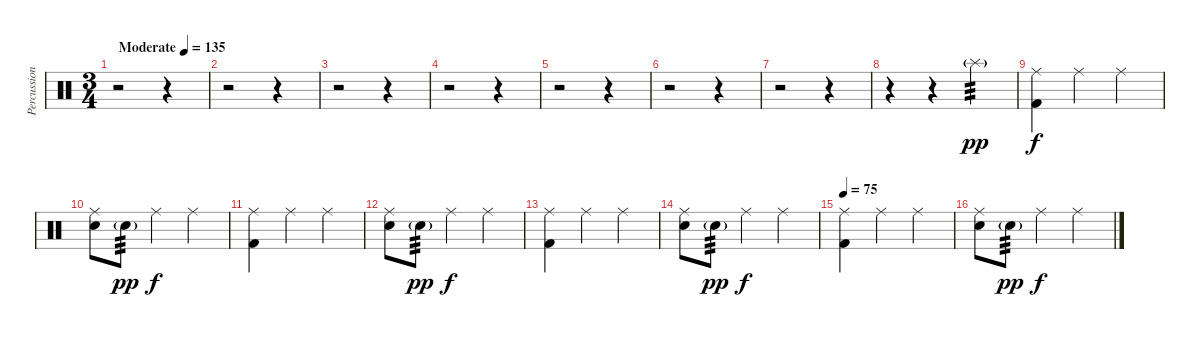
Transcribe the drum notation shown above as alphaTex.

\track ("Percussion" "Percussion") {instrument percussion}
\staff {score}
\articulation defaults
\ts (3 4)
\tempo (135 "Moderate")
\clef neutral
\ks c
r.2{dy pp} r.4 |
r.2 r.4 |
r.2 r.4 |
r.2 r.4 |
r.2 r.4 |
r.2 r.4 |
r.2 r.4 |
r.4 r.4 "Splash (hit)"{g}.4{tp 3} |
("Ride (middle)" "Kick (hit) 2").4{dy f} "Ride (middle)".4 "Ride (middle)".4 |
("Ride (middle)" "Electric Snare (hit)").8 "Electric Snare (hit)"{g}.8{tp 3 dy pp} "Ride (middle)".4{dy f} "Ride (middle)".4 |
("Ride (middle)" "Kick (hit) 2").4 "Ride (middle)".4 "Ride (middle)".4 |
("Ride (middle)" "Electric Snare (hit)").8 "Electric Snare (hit)"{g}.8{tp 3 dy pp} "Ride (middle)".4{dy f} "Ride (middle)".4 |
("Ride (middle)" "Kick (hit) 2").4 "Ride (middle)".4 "Ride (middle)".4 |
("Ride (middle)" "Electric Snare (hit)").8 "Electric Snare (hit)"{g}.8{tp 3 dy pp} "Ride (middle)".4{dy f} "Ride (middle)".4 |
\tempo 75
("Ride (middle)" "Kick (hit) 2").4 "Ride (middle)".4 "Ride (middle)".4 |
("Ride (middle)" "Electric Snare (hit)").8 "Electric Snare (hit)"{g}.8{tp 3 dy pp} "Ride (middle)".4{dy f} "Ride (middle)".4
